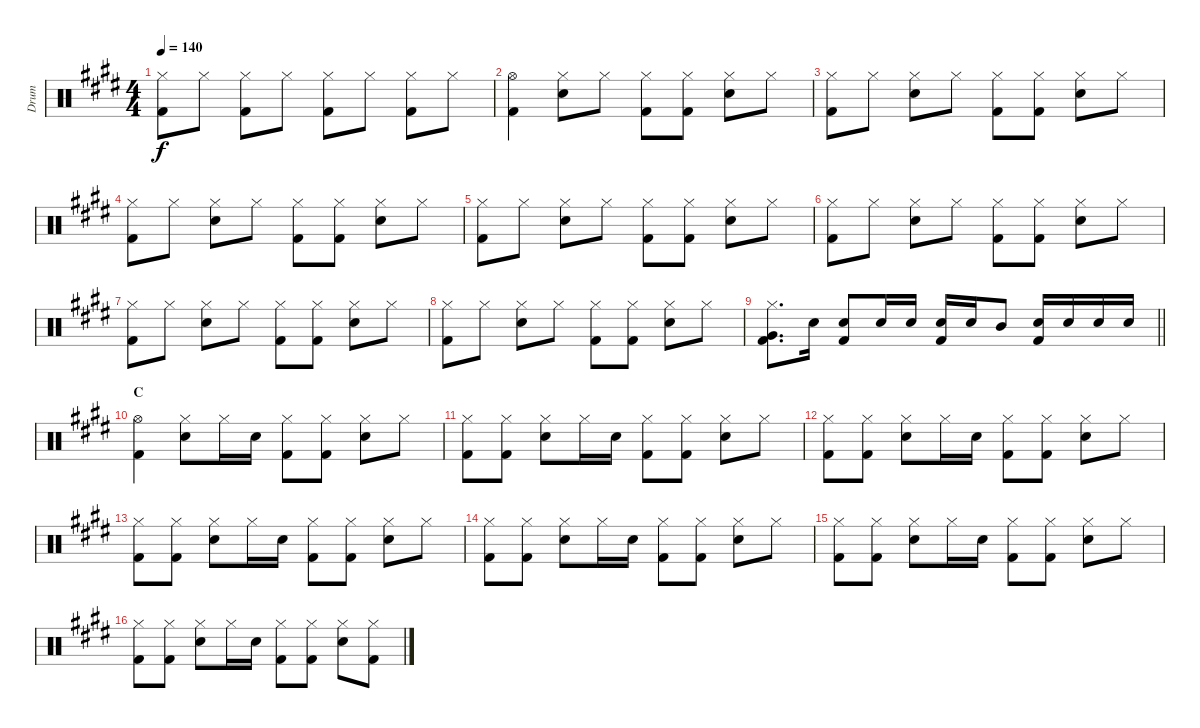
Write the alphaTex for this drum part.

\track ("Drum" "Drum") {instrument percussion}
\staff {score}
\articulation defaults
\ts (4 4)
\tempo 140
\clef neutral
\ks c#minor
("Hi-Hat (closed)" "Kick (hit) 2").8{dy f} "Hi-Hat (closed)".8 ("Hi-Hat (closed)" "Kick (hit) 2").8 "Hi-Hat (closed)".8 ("Hi-Hat (closed)" "Kick (hit) 2").8 "Hi-Hat (closed)".8 ("Hi-Hat (closed)" "Kick (hit) 2").8 "Hi-Hat (closed)".8 |
("Hi-Hat (open)" "Kick (hit) 2").4 ("Hi-Hat (closed)" "Snare (hit) 2").8 "Hi-Hat (closed)".8 ("Hi-Hat (closed)" "Kick (hit) 2").8 ("Hi-Hat (closed)" "Kick (hit) 2").8 ("Hi-Hat (closed)" "Snare (hit) 2").8 "Hi-Hat (closed)".8 |
("Hi-Hat (closed)" "Kick (hit) 2").8 "Hi-Hat (closed)".8 ("Hi-Hat (closed)" "Snare (hit) 2").8 "Hi-Hat (closed)".8 ("Hi-Hat (closed)" "Kick (hit) 2").8 ("Hi-Hat (closed)" "Kick (hit) 2").8 ("Hi-Hat (closed)" "Snare (hit) 2").8 "Hi-Hat (closed)".8 |
("Hi-Hat (closed)" "Kick (hit) 2").8 "Hi-Hat (closed)".8 ("Hi-Hat (closed)" "Snare (hit) 2").8 "Hi-Hat (closed)".8 ("Hi-Hat (closed)" "Kick (hit) 2").8 ("Hi-Hat (closed)" "Kick (hit) 2").8 ("Hi-Hat (closed)" "Snare (hit) 2").8 "Hi-Hat (closed)".8 |
("Hi-Hat (closed)" "Kick (hit) 2").8 "Hi-Hat (closed)".8 ("Hi-Hat (closed)" "Snare (hit) 2").8 "Hi-Hat (closed)".8 ("Hi-Hat (closed)" "Kick (hit) 2").8 ("Hi-Hat (closed)" "Kick (hit) 2").8 ("Hi-Hat (closed)" "Snare (hit) 2").8 "Hi-Hat (closed)".8 |
("Hi-Hat (closed)" "Kick (hit) 2").8 "Hi-Hat (closed)".8 ("Hi-Hat (closed)" "Snare (hit) 2").8 "Hi-Hat (closed)".8 ("Hi-Hat (closed)" "Kick (hit) 2").8 ("Hi-Hat (closed)" "Kick (hit) 2").8 ("Hi-Hat (closed)" "Snare (hit) 2").8 "Hi-Hat (closed)".8 |
("Hi-Hat (closed)" "Kick (hit) 2").8 "Hi-Hat (closed)".8 ("Hi-Hat (closed)" "Snare (hit) 2").8 "Hi-Hat (closed)".8 ("Hi-Hat (closed)" "Kick (hit) 2").8 ("Hi-Hat (closed)" "Kick (hit) 2").8 ("Hi-Hat (closed)" "Snare (hit) 2").8 "Hi-Hat (closed)".8 |
("Hi-Hat (closed)" "Kick (hit) 2").8 "Hi-Hat (closed)".8 ("Hi-Hat (closed)" "Snare (hit) 2").8 "Hi-Hat (closed)".8 ("Hi-Hat (closed)" "Kick (hit) 2").8 ("Hi-Hat (closed)" "Kick (hit) 2").8 ("Hi-Hat (closed)" "Snare (hit) 2").8 "Hi-Hat (closed)".8 |
\barLineRight lightlight
("Hi-Hat (closed)" "Very Low Tom (hit)" "Kick (hit) 2").8{d} "Snare (hit) 2".16 ("Snare (hit) 2" "Kick (hit) 2").8 "Snare (hit) 2".16 "Snare (hit) 2".16 ("Snare (hit) 2" "Kick (hit) 2").16 "Snare (hit) 2".16 "Mid Tom (hit)".8 ("Snare (hit) 2" "Kick (hit) 2").16 "Snare (hit) 2".16 "Snare (hit) 2".16 "Snare (hit) 2".16 |
\section ("" "C")
("Hi-Hat (open)" "Kick (hit) 2").4 ("Hi-Hat (closed)" "Snare (hit) 2").8 "Hi-Hat (closed)".16 "Snare (hit) 2".16 ("Hi-Hat (closed)" "Kick (hit) 2").8 ("Hi-Hat (closed)" "Kick (hit) 2").8 ("Hi-Hat (closed)" "Snare (hit) 2").8 "Hi-Hat (closed)".8 |
("Hi-Hat (closed)" "Kick (hit) 2").8 ("Hi-Hat (closed)" "Kick (hit) 2").8 ("Hi-Hat (closed)" "Snare (hit) 2").8 "Hi-Hat (closed)".16 "Snare (hit) 2".16 ("Hi-Hat (closed)" "Kick (hit) 2").8 ("Hi-Hat (closed)" "Kick (hit) 2").8 ("Hi-Hat (closed)" "Snare (hit) 2").8 "Hi-Hat (closed)".8 |
("Hi-Hat (closed)" "Kick (hit) 2").8 ("Hi-Hat (closed)" "Kick (hit) 2").8 ("Hi-Hat (closed)" "Snare (hit) 2").8 "Hi-Hat (closed)".16 "Snare (hit) 2".16 ("Hi-Hat (closed)" "Kick (hit) 2").8 ("Hi-Hat (closed)" "Kick (hit) 2").8 ("Hi-Hat (closed)" "Snare (hit) 2").8 "Hi-Hat (closed)".8 |
("Hi-Hat (closed)" "Kick (hit) 2").8 ("Hi-Hat (closed)" "Kick (hit) 2").8 ("Hi-Hat (closed)" "Snare (hit) 2").8 "Hi-Hat (closed)".16 "Snare (hit) 2".16 ("Hi-Hat (closed)" "Kick (hit) 2").8 ("Hi-Hat (closed)" "Kick (hit) 2").8 ("Hi-Hat (closed)" "Snare (hit) 2").8 "Hi-Hat (closed)".8 |
("Hi-Hat (closed)" "Kick (hit) 2").8 ("Hi-Hat (closed)" "Kick (hit) 2").8 ("Hi-Hat (closed)" "Snare (hit) 2").8 "Hi-Hat (closed)".16 "Snare (hit) 2".16 ("Hi-Hat (closed)" "Kick (hit) 2").8 ("Hi-Hat (closed)" "Kick (hit) 2").8 ("Hi-Hat (closed)" "Snare (hit) 2").8 "Hi-Hat (closed)".8 |
("Hi-Hat (closed)" "Kick (hit) 2").8 ("Hi-Hat (closed)" "Kick (hit) 2").8 ("Hi-Hat (closed)" "Snare (hit) 2").8 "Hi-Hat (closed)".16 "Snare (hit) 2".16 ("Hi-Hat (closed)" "Kick (hit) 2").8 ("Hi-Hat (closed)" "Kick (hit) 2").8 ("Hi-Hat (closed)" "Snare (hit) 2").8 "Hi-Hat (closed)".8 |
("Hi-Hat (closed)" "Kick (hit) 2").8 ("Hi-Hat (closed)" "Kick (hit) 2").8 ("Hi-Hat (closed)" "Snare (hit) 2").8 "Hi-Hat (closed)".16 "Snare (hit) 2".16 ("Hi-Hat (closed)" "Kick (hit) 2").8 ("Hi-Hat (closed)" "Kick (hit) 2").8 ("Hi-Hat (closed)" "Snare (hit) 2").8 ("Hi-Hat (closed)" "Kick (hit) 2").8
